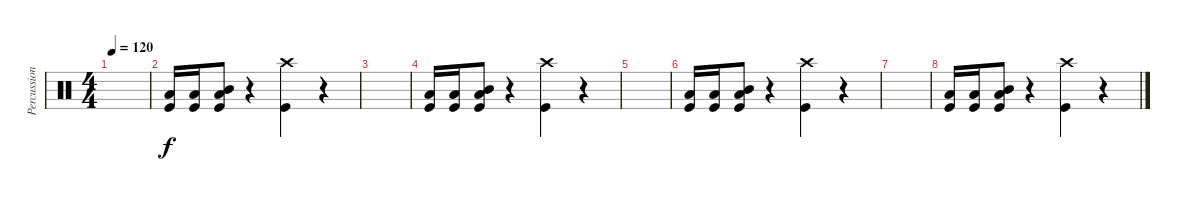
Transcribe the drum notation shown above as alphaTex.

\track ("Percussioni" "Percussion") {instrument percussion}
\staff {score}
\articulation defaults
\ts (4 4)
\tempo 120
\clef neutral
\ks c
|
("Low Tom (hit)" "Kick (hit)").16{volume 6} ("Low Tom (hit)" "Kick (hit)").16 ("Mid Tom (hit)" "Low Tom (hit)" "Kick (hit)").8 r.4 ("Crash high (hit)" "Kick (hit)").4 r.4 |
|
("Low Tom (hit)" "Kick (hit)").16{volume 4} ("Low Tom (hit)" "Kick (hit)").16 ("Mid Tom (hit)" "Low Tom (hit)" "Kick (hit)").8 r.4 ("Crash high (hit)" "Kick (hit)").4 r.4 |
|
("Low Tom (hit)" "Kick (hit)").16{volume 2} ("Low Tom (hit)" "Kick (hit)").16 ("Mid Tom (hit)" "Low Tom (hit)" "Kick (hit)").8 r.4 ("Crash high (hit)" "Kick (hit)").4 r.4 |
|
("Low Tom (hit)" "Kick (hit)").16{volume 0} ("Low Tom (hit)" "Kick (hit)").16 ("Mid Tom (hit)" "Low Tom (hit)" "Kick (hit)").8 r.4 ("Crash high (hit)" "Kick (hit)").4 r.4
